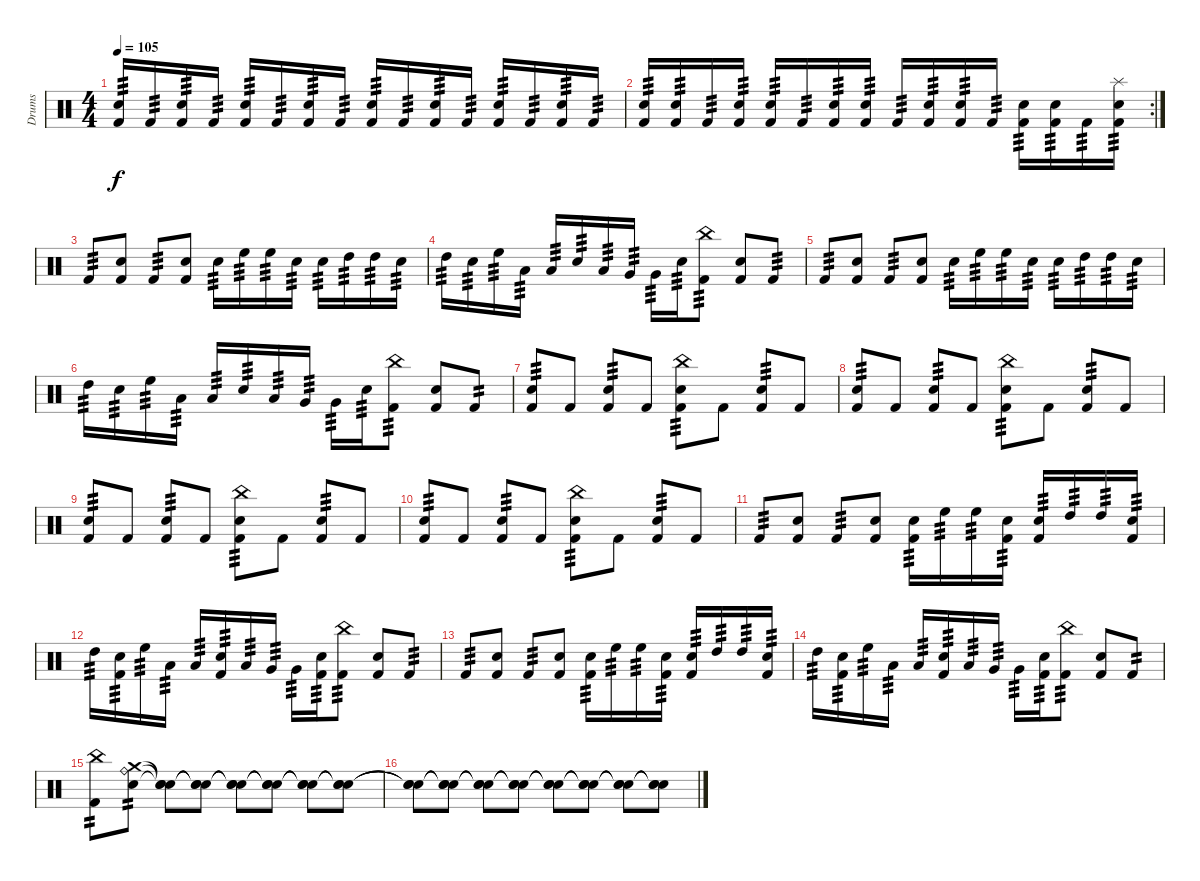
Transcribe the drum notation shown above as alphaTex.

\track ("Drums" "Drums") {instrument percussion}
\staff {score}
\articulation defaults
\ts (4 4)
\tempo 105
\clef neutral
\ks c
("Electric Snare (hit)" "Kick (hit) 2").16{tp 3 dy f} "Kick (hit) 2".16{tp 3} ("Electric Snare (hit)" "Kick (hit) 2").16{tp 3} "Kick (hit) 2".16{tp 3} ("Electric Snare (hit)" "Kick (hit) 2").16{tp 3} "Kick (hit) 2".16{tp 3} ("Electric Snare (hit)" "Kick (hit) 2").16{tp 3} "Kick (hit) 2".16{tp 3} ("Electric Snare (hit)" "Kick (hit) 2").16{tp 3} "Kick (hit) 2".16{tp 3} ("Electric Snare (hit)" "Kick (hit) 2").16{tp 3} "Kick (hit) 2".16{tp 3} ("Electric Snare (hit)" "Kick (hit) 2").16{tp 3} "Kick (hit) 2".16{tp 3} ("Electric Snare (hit)" "Kick (hit) 2").16{tp 3} "Kick (hit) 2".16{tp 3} |
\rc 2
("Electric Snare (hit)" "Kick (hit) 2").16{tp 3} ("Electric Snare (hit)" "Kick (hit) 2").16{tp 3} "Kick (hit) 2".16{tp 3} ("Electric Snare (hit)" "Kick (hit) 2").16{tp 3} ("Electric Snare (hit)" "Kick (hit) 2").16{tp 3} "Kick (hit) 2".16{tp 3} ("Electric Snare (hit)" "Kick (hit) 2").16{tp 3} ("Electric Snare (hit)" "Kick (hit) 2").16{tp 3} "Kick (hit) 2".16{tp 3} ("Electric Snare (hit)" "Kick (hit) 2").16{tp 3} ("Electric Snare (hit)" "Kick (hit) 2").16{tp 3} "Kick (hit) 2".16{tp 3} ("Electric Snare (hit)" "Kick (hit) 2").16{tp 3} ("Electric Snare (hit)" "Kick (hit) 2").16{tp 3} "Kick (hit) 2".16{tp 3} ("Splash (hit)" "Electric Snare (hit)" "Kick (hit) 2").16{tp 3} |
"Kick (hit) 2".8{tp 3} ("Electric Snare (hit)" "Kick (hit) 2").8 "Kick (hit) 2".8{tp 3} ("Electric Snare (hit)" "Kick (hit) 2").8 "Electric Snare (hit)".16{tp 3} "High Floor Tom (hit)".16{tp 3} "High Floor Tom (hit)".16{tp 3} "Electric Snare (hit)".16{tp 3} "Electric Snare (hit)".16{tp 3} "High Tom (hit)".16{tp 3} "High Tom (hit)".16{tp 3} "Electric Snare (hit)".16{tp 3} |
"High Tom (hit)".16{tp 3} "Electric Snare (hit)".16{tp 3} "High Floor Tom (hit)".16{tp 3} "Low Tom (hit)".16{tp 3} "Low Tom (hit)".16{tp 3} "Electric Snare (hit)".16{tp 3} "Low Tom (hit)".16{tp 3} "Very Low Tom (hit)".16{tp 3} "Very Low Tom (hit)".16{tp 3} "Electric Snare (hit)".16{tp 3} ("China (hit)" "Kick (hit) 2").8{tp 3} ("Electric Snare (hit)" "Kick (hit) 2").8 "Kick (hit) 2".8{tp 3} |
"Kick (hit) 2".8{tp 3} ("Electric Snare (hit)" "Kick (hit) 2").8 "Kick (hit) 2".8{tp 3} ("Electric Snare (hit)" "Kick (hit) 2").8 "Electric Snare (hit)".16{tp 3} "High Floor Tom (hit)".16{tp 3} "High Floor Tom (hit)".16{tp 3} "Electric Snare (hit)".16{tp 3} "Electric Snare (hit)".16{tp 3} "High Tom (hit)".16{tp 3} "High Tom (hit)".16{tp 3} "Electric Snare (hit)".16{tp 3} |
"High Tom (hit)".16{tp 3} "Electric Snare (hit)".16{tp 3} "High Floor Tom (hit)".16{tp 3} "Low Tom (hit)".16{tp 3} "Low Tom (hit)".16{tp 3} "Electric Snare (hit)".16{tp 3} "Low Tom (hit)".16{tp 3} "Very Low Tom (hit)".16{tp 3} "Very Low Tom (hit)".16{tp 3} "Electric Snare (hit)".16{tp 3} ("China (hit)" "Kick (hit) 2").8{tp 3} ("Electric Snare (hit)" "Kick (hit) 2").8 "Kick (hit) 2".8{tp 2} |
("Electric Snare (hit)" "Kick (hit) 2").8{tp 3} "Kick (hit) 2".8 ("Electric Snare (hit)" "Kick (hit) 2").8{tp 3} "Kick (hit) 2".8 ("China (hit)" "Electric Snare (hit)" "Kick (hit) 2").8{tp 3} "Kick (hit) 2".8 ("Electric Snare (hit)" "Kick (hit) 2").8{tp 3} "Kick (hit) 2".8 |
("Electric Snare (hit)" "Kick (hit) 2").8{tp 3} "Kick (hit) 2".8 ("Electric Snare (hit)" "Kick (hit) 2").8{tp 3} "Kick (hit) 2".8 ("China (hit)" "Electric Snare (hit)" "Kick (hit) 2").8{tp 3} "Kick (hit) 2".8 ("Electric Snare (hit)" "Kick (hit) 2").8{tp 3} "Kick (hit) 2".8 |
("Electric Snare (hit)" "Kick (hit) 2").8{tp 3} "Kick (hit) 2".8 ("Electric Snare (hit)" "Kick (hit) 2").8{tp 3} "Kick (hit) 2".8 ("China (hit)" "Electric Snare (hit)" "Kick (hit) 2").8{tp 3} "Kick (hit) 2".8 ("Electric Snare (hit)" "Kick (hit) 2").8{tp 3} "Kick (hit) 2".8 |
("Electric Snare (hit)" "Kick (hit) 2").8{tp 3} "Kick (hit) 2".8 ("Electric Snare (hit)" "Kick (hit) 2").8{tp 3} "Kick (hit) 2".8 ("China (hit)" "Electric Snare (hit)" "Kick (hit) 2").8{tp 3} "Kick (hit) 2".8 ("Electric Snare (hit)" "Kick (hit) 2").8{tp 3} "Kick (hit) 2".8 |
"Kick (hit) 2".8{tp 3} ("Electric Snare (hit)" "Kick (hit) 2").8 "Kick (hit) 2".8{tp 3} ("Electric Snare (hit)" "Kick (hit) 2").8 ("Electric Snare (hit)" "Kick (hit) 2").16{tp 3} "High Floor Tom (hit)".16{tp 3} "High Floor Tom (hit)".16{tp 3} ("Electric Snare (hit)" "Kick (hit) 2").16{tp 3} ("Electric Snare (hit)" "Kick (hit) 2").16{tp 3} "High Tom (hit)".16{tp 3} "High Tom (hit)".16{tp 3} ("Electric Snare (hit)" "Kick (hit) 2").16{tp 3} |
"High Tom (hit)".16{tp 3} ("Electric Snare (hit)" "Kick (hit) 2").16{tp 3} "High Floor Tom (hit)".16{tp 3} "Low Tom (hit)".16{tp 3} "Low Tom (hit)".16{tp 3} ("Electric Snare (hit)" "Kick (hit) 2").16{tp 3} "Low Tom (hit)".16{tp 3} "Very Low Tom (hit)".16{tp 3} "Very Low Tom (hit)".16{tp 3} ("Electric Snare (hit)" "Kick (hit) 2").16{tp 3} ("China (hit)" "Kick (hit) 2").8{tp 3} ("Electric Snare (hit)" "Kick (hit) 2").8 "Kick (hit) 2".8{tp 3} |
"Kick (hit) 2".8{tp 3} ("Electric Snare (hit)" "Kick (hit) 2").8 "Kick (hit) 2".8{tp 3} ("Electric Snare (hit)" "Kick (hit) 2").8 ("Electric Snare (hit)" "Kick (hit) 2").16{tp 3} "High Floor Tom (hit)".16{tp 3} "High Floor Tom (hit)".16{tp 3} ("Electric Snare (hit)" "Kick (hit) 2").16{tp 3} ("Electric Snare (hit)" "Kick (hit) 2").16{tp 3} "High Tom (hit)".16{tp 3} "High Tom (hit)".16{tp 3} ("Electric Snare (hit)" "Kick (hit) 2").16{tp 3} |
"High Tom (hit)".16{tp 3} ("Electric Snare (hit)" "Kick (hit) 2").16{tp 3} "High Floor Tom (hit)".16{tp 3} "Low Tom (hit)".16{tp 3} "Low Tom (hit)".16{tp 3} ("Electric Snare (hit)" "Kick (hit) 2").16{tp 3} "Low Tom (hit)".16{tp 3} "Very Low Tom (hit)".16{tp 3} "Very Low Tom (hit)".16{tp 3} ("Electric Snare (hit)" "Kick (hit) 2").16{tp 3} ("China (hit)" "Kick (hit) 2").8{tp 3} ("Electric Snare (hit)" "Kick (hit) 2").8 "Kick (hit) 2".8{tp 2} |
("China (hit)" "Kick (hit) 2").8{tp 2} ("Crash medium (hit)" "Ride (bell)" "Snare (hit)").8{tp 2} ("Snare (hit)"{t} "Snare (hit)"{t} "Snare (hit)"{t}).8 ("Snare (hit)"{t} "Snare (hit)"{t} "Snare (hit)"{t}).8 ("Snare (hit)"{t} "Snare (hit)"{t} "Snare (hit)"{t}).8 ("Snare (hit)"{t} "Snare (hit)"{t} "Snare (hit)"{t}).8 ("Snare (hit)"{t} "Snare (hit)"{t} "Snare (hit)"{t}).8 ("Snare (hit)"{t} "Snare (hit)"{t} "Snare (hit)"{t}).8 |
("Snare (hit)"{t} "Snare (hit)"{t} "Snare (hit)"{t}).8 ("Snare (hit)"{t} "Snare (hit)"{t} "Snare (hit)"{t}).8 ("Snare (hit)"{t} "Snare (hit)"{t} "Snare (hit)"{t}).8 ("Snare (hit)"{t} "Snare (hit)"{t} "Snare (hit)"{t}).8 ("Snare (hit)"{t} "Snare (hit)"{t} "Snare (hit)"{t}).8 ("Snare (hit)"{t} "Snare (hit)"{t} "Snare (hit)"{t}).8 ("Snare (hit)"{t} "Snare (hit)"{t} "Snare (hit)"{t}).8 ("Snare (hit)"{t} "Snare (hit)"{t} "Snare (hit)"{t}).8
